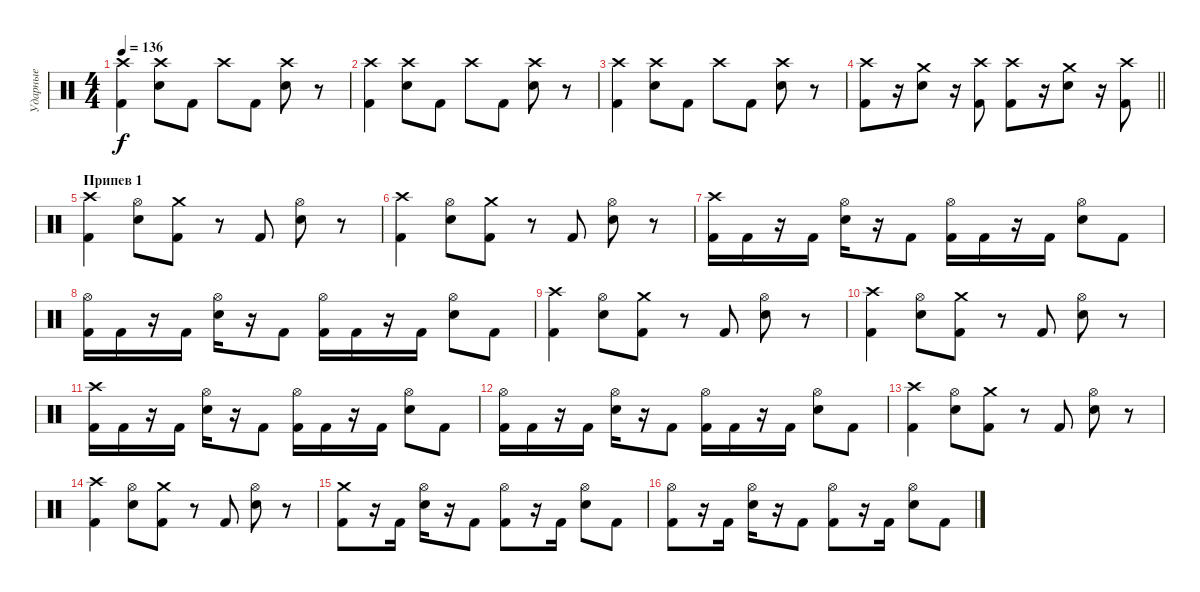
\track ("Ударные" "Ударные") {instrument percussion}
\staff {score}
\articulation defaults
\ts (4 4)
\tempo 136
\clef neutral
\ks c
("Crash high (hit)" "Kick (hit) 2").4{dy f} ("Crash high (hit)" "Snare (hit) 2").8 "Kick (hit) 2".8 "Crash high (hit)".8 "Kick (hit) 2".8 ("Crash high (hit)" "Snare (hit) 2").8 r.8 |
("Crash high (hit)" "Kick (hit) 2").4 ("Crash high (hit)" "Snare (hit) 2").8 "Kick (hit) 2".8 "Crash high (hit)".8 "Kick (hit) 2".8 ("Crash high (hit)" "Snare (hit) 2").8 r.8 |
("Crash high (hit)" "Kick (hit) 2").4 ("Crash high (hit)" "Snare (hit) 2").8 "Kick (hit) 2".8 "Crash high (hit)".8 "Kick (hit) 2".8 ("Crash high (hit)" "Snare (hit) 2").8 r.8 |
\barLineRight lightlight
("Crash high (hit)" "Kick (hit) 2").8 r.16 ("Crash medium (hit)" "Snare (hit) 2").8 r.16 ("Crash high (hit)" "Kick (hit) 2").8 ("Crash high (hit)" "Kick (hit) 2").8 r.16 ("Crash medium (hit)" "Snare (hit) 2").8 r.16 ("Crash high (hit)" "Kick (hit) 2").8 |
\section ("" "Припев 1")
("Crash high (hit)" "Kick (hit) 2").4 ("Hi-Hat (open)" "Snare (hit) 2").8 ("Crash medium (hit)" "Kick (hit) 2").8 r.8 "Kick (hit) 2".8 ("Hi-Hat (open)" "Snare (hit) 2").8 r.8 |
("Crash high (hit)" "Kick (hit) 2").4 ("Hi-Hat (open)" "Snare (hit) 2").8 ("Crash medium (hit)" "Kick (hit) 2").8 r.8 "Kick (hit) 2".8 ("Hi-Hat (open)" "Snare (hit) 2").8 r.8 |
("Crash high (hit)" "Kick (hit) 2").16 "Kick (hit) 2".16 r.16 "Kick (hit) 2".16 ("Hi-Hat (open)" "Snare (hit) 2").16 r.16 "Kick (hit) 2".8 ("Hi-Hat (open)" "Kick (hit) 2").16 "Kick (hit) 2".16 r.16 "Kick (hit) 2".16 ("Hi-Hat (open)" "Snare (hit) 2").8 "Kick (hit) 2".8 |
("Hi-Hat (open)" "Kick (hit) 2").16 "Kick (hit) 2".16 r.16 "Kick (hit) 2".16 ("Hi-Hat (open)" "Snare (hit) 2").16 r.16 "Kick (hit) 2".8 ("Hi-Hat (open)" "Kick (hit) 2").16 "Kick (hit) 2".16 r.16 "Kick (hit) 2".16 ("Hi-Hat (open)" "Snare (hit) 2").8 "Kick (hit) 2".8 |
("Crash high (hit)" "Kick (hit) 2").4 ("Hi-Hat (open)" "Snare (hit) 2").8 ("Crash medium (hit)" "Kick (hit) 2").8 r.8 "Kick (hit) 2".8 ("Hi-Hat (open)" "Snare (hit) 2").8 r.8 |
("Crash high (hit)" "Kick (hit) 2").4 ("Hi-Hat (open)" "Snare (hit) 2").8 ("Crash medium (hit)" "Kick (hit) 2").8 r.8 "Kick (hit) 2".8 ("Hi-Hat (open)" "Snare (hit) 2").8 r.8 |
("Crash high (hit)" "Kick (hit) 2").16 "Kick (hit) 2".16 r.16 "Kick (hit) 2".16 ("Hi-Hat (open)" "Snare (hit) 2").16 r.16 "Kick (hit) 2".8 ("Hi-Hat (open)" "Kick (hit) 2").16 "Kick (hit) 2".16 r.16 "Kick (hit) 2".16 ("Hi-Hat (open)" "Snare (hit) 2").8 "Kick (hit) 2".8 |
("Hi-Hat (open)" "Kick (hit) 2").16 "Kick (hit) 2".16 r.16 "Kick (hit) 2".16 ("Hi-Hat (open)" "Snare (hit) 2").16 r.16 "Kick (hit) 2".8 ("Hi-Hat (open)" "Kick (hit) 2").16 "Kick (hit) 2".16 r.16 "Kick (hit) 2".16 ("Hi-Hat (open)" "Snare (hit) 2").8 "Kick (hit) 2".8 |
("Crash high (hit)" "Kick (hit) 2").4 ("Hi-Hat (open)" "Snare (hit) 2").8 ("Crash medium (hit)" "Kick (hit) 2").8 r.8 "Kick (hit) 2".8 ("Hi-Hat (open)" "Snare (hit) 2").8 r.8 |
("Crash high (hit)" "Kick (hit) 2").4 ("Hi-Hat (open)" "Snare (hit) 2").8 ("Crash medium (hit)" "Kick (hit) 2").8 r.8 "Kick (hit) 2".8 ("Hi-Hat (open)" "Snare (hit) 2").8 r.8 |
("Crash medium (hit)" "Kick (hit) 2").8 r.16 "Kick (hit) 2".16 ("Hi-Hat (open)" "Snare (hit) 2").16 r.16 "Kick (hit) 2".8 ("Hi-Hat (open)" "Kick (hit) 2").8 r.16 "Kick (hit) 2".16 ("Hi-Hat (open)" "Snare (hit) 2").8 "Kick (hit) 2".8 |
("Hi-Hat (open)" "Kick (hit) 2").8 r.16 "Kick (hit) 2".16 ("Hi-Hat (open)" "Snare (hit) 2").16 r.16 "Kick (hit) 2".8 ("Hi-Hat (open)" "Kick (hit) 2").8 r.16 "Kick (hit) 2".16 ("Hi-Hat (open)" "Snare (hit) 2").8 "Kick (hit) 2".8
